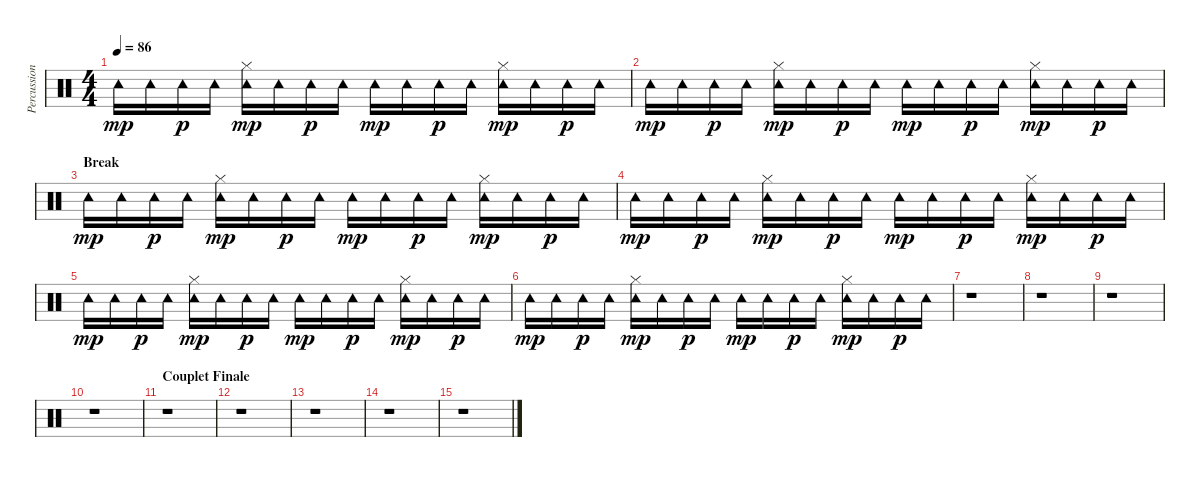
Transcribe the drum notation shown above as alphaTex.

\track ("Percussion" "Percussion") {instrument percussion}
\staff {score}
\articulation defaults
\ts (4 4)
\tempo 86
\clef neutral
\ks c "Tambourine (hit)".16{dy mp} "Tambourine (hit)".16 "Tambourine (hit)".16{dy p} "Tambourine (hit)".16
("Tambourine (hit)" "Hi-Hat (closed)").16{dy mp} "Tambourine (hit)".16 "Tambourine (hit)".16{dy p} "Tambourine (hit)".16 "Tambourine (hit)".16{dy mp} "Tambourine (hit)".16 "Tambourine (hit)".16{dy p} "Tambourine (hit)".16 ("Tambourine (hit)" "Hi-Hat (closed)").16{dy mp} "Tambourine (hit)".16 "Tambourine (hit)".16{dy p} "Tambourine (hit)".16 |
"Tambourine (hit)".16{dy mp} "Tambourine (hit)".16 "Tambourine (hit)".16{dy p} "Tambourine (hit)".16 ("Tambourine (hit)" "Hi-Hat (closed)").16{dy mp} "Tambourine (hit)".16 "Tambourine (hit)".16{dy p} "Tambourine (hit)".16 "Tambourine (hit)".16{dy mp} "Tambourine (hit)".16 "Tambourine (hit)".16{dy p} "Tambourine (hit)".16 ("Tambourine (hit)" "Hi-Hat (closed)").16{dy mp} "Tambourine (hit)".16 "Tambourine (hit)".16{dy p} "Tambourine (hit)".16 |
\section ("" "Break")
"Tambourine (hit)".16{dy mp} "Tambourine (hit)".16 "Tambourine (hit)".16{dy p} "Tambourine (hit)".16 ("Tambourine (hit)" "Hi-Hat (closed)").16{dy mp} "Tambourine (hit)".16 "Tambourine (hit)".16{dy p} "Tambourine (hit)".16 "Tambourine (hit)".16{dy mp} "Tambourine (hit)".16 "Tambourine (hit)".16{dy p} "Tambourine (hit)".16 ("Tambourine (hit)" "Hi-Hat (closed)").16{dy mp} "Tambourine (hit)".16 "Tambourine (hit)".16{dy p} "Tambourine (hit)".16 |
"Tambourine (hit)".16{dy mp} "Tambourine (hit)".16 "Tambourine (hit)".16{dy p} "Tambourine (hit)".16 ("Tambourine (hit)" "Hi-Hat (closed)").16{dy mp} "Tambourine (hit)".16 "Tambourine (hit)".16{dy p} "Tambourine (hit)".16 "Tambourine (hit)".16{dy mp} "Tambourine (hit)".16 "Tambourine (hit)".16{dy p} "Tambourine (hit)".16 ("Tambourine (hit)" "Hi-Hat (closed)").16{dy mp} "Tambourine (hit)".16 "Tambourine (hit)".16{dy p} "Tambourine (hit)".16 |
"Tambourine (hit)".16{dy mp} "Tambourine (hit)".16 "Tambourine (hit)".16{dy p} "Tambourine (hit)".16 ("Tambourine (hit)" "Hi-Hat (closed)").16{dy mp} "Tambourine (hit)".16 "Tambourine (hit)".16{dy p} "Tambourine (hit)".16 "Tambourine (hit)".16{dy mp} "Tambourine (hit)".16 "Tambourine (hit)".16{dy p} "Tambourine (hit)".16 ("Tambourine (hit)" "Hi-Hat (closed)").16{dy mp} "Tambourine (hit)".16 "Tambourine (hit)".16{dy p} "Tambourine (hit)".16 |
"Tambourine (hit)".16{dy mp} "Tambourine (hit)".16 "Tambourine (hit)".16{dy p} "Tambourine (hit)".16 ("Tambourine (hit)" "Hi-Hat (closed)").16{dy mp} "Tambourine (hit)".16 "Tambourine (hit)".16{dy p} "Tambourine (hit)".16 "Tambourine (hit)".16{dy mp} "Tambourine (hit)".16 "Tambourine (hit)".16{dy p} "Tambourine (hit)".16 ("Tambourine (hit)" "Hi-Hat (closed)").16{dy mp} "Tambourine (hit)".16 "Tambourine (hit)".16{dy p} "Tambourine (hit)".16 |
r.1 |
r.1 |
r.1 |
r.1 |
\section ("" "Couplet Finale")
r.1 |
r.1 |
r.1 |
r.1 |
r.1
